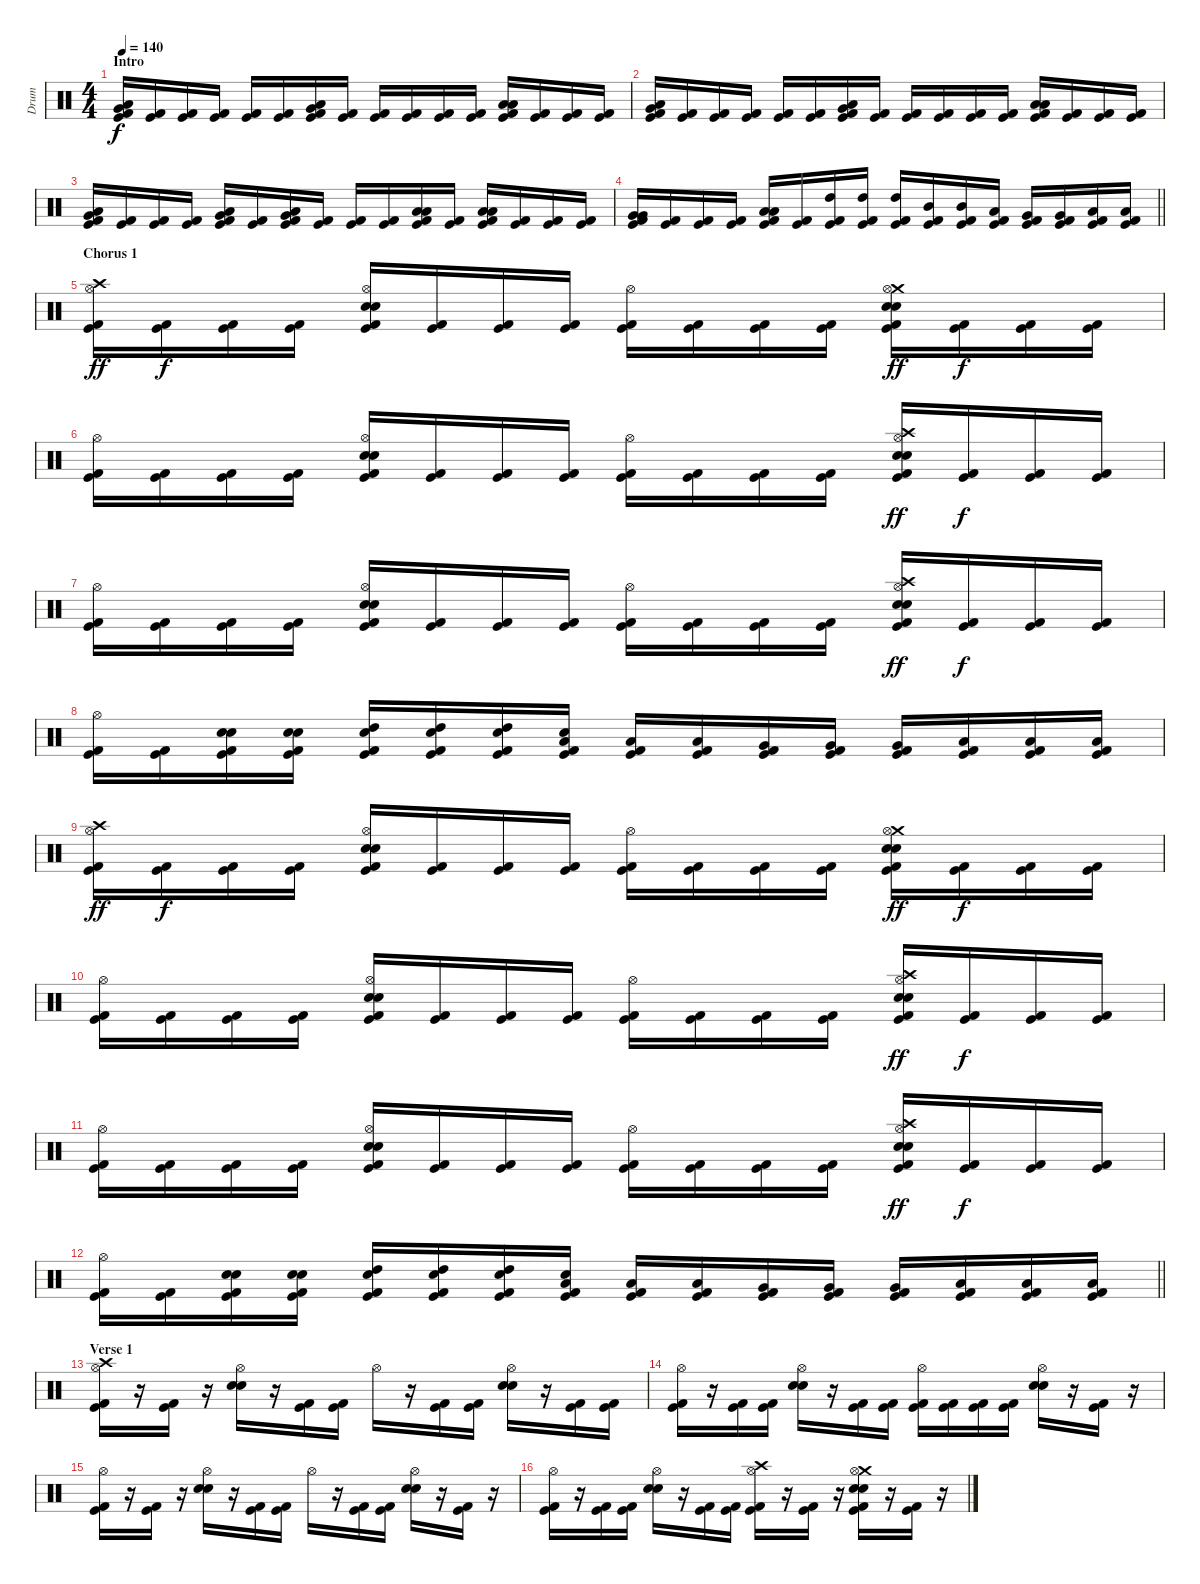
\track ("Drum" "Drum") {instrument percussion}
\staff {score}
\articulation defaults
\ts (4 4)
\section ("" "Intro")
\tempo 140
\clef neutral
\ks c
("Very Low Tom (hit)" "Low Floor Tom (hit)" "Kick (hit)" "Kick (hit) 2").16{dy f} ("Kick (hit)" "Kick (hit) 2").16 ("Kick (hit)" "Kick (hit) 2").16 ("Kick (hit)" "Kick (hit) 2").16 ("Kick (hit)" "Kick (hit) 2").16 ("Kick (hit)" "Kick (hit) 2").16 ("Very Low Tom (hit)" "Low Floor Tom (hit)" "Kick (hit)" "Kick (hit) 2").16 ("Kick (hit)" "Kick (hit) 2").16 ("Kick (hit)" "Kick (hit) 2").16 ("Kick (hit)" "Kick (hit) 2").16 ("Kick (hit)" "Kick (hit) 2").16 ("Kick (hit)" "Kick (hit) 2").16 ("Low Floor Tom (hit)" "Low Floor Tom (hit)" "Kick (hit)" "Kick (hit) 2").16 ("Kick (hit)" "Kick (hit) 2").16 ("Kick (hit)" "Kick (hit) 2").16 ("Kick (hit)" "Kick (hit) 2").16 |
("Very Low Tom (hit)" "Low Floor Tom (hit)" "Kick (hit)" "Kick (hit) 2").16 ("Kick (hit)" "Kick (hit) 2").16 ("Kick (hit)" "Kick (hit) 2").16 ("Kick (hit)" "Kick (hit) 2").16 ("Kick (hit)" "Kick (hit) 2").16 ("Kick (hit)" "Kick (hit) 2").16 ("Very Low Tom (hit)" "Low Floor Tom (hit)" "Kick (hit)" "Kick (hit) 2").16 ("Kick (hit)" "Kick (hit) 2").16 ("Kick (hit)" "Kick (hit) 2").16 ("Kick (hit)" "Kick (hit) 2").16 ("Kick (hit)" "Kick (hit) 2").16 ("Kick (hit)" "Kick (hit) 2").16 ("Low Floor Tom (hit)" "Low Floor Tom (hit)" "Kick (hit)" "Kick (hit) 2").16 ("Kick (hit)" "Kick (hit) 2").16 ("Kick (hit)" "Kick (hit) 2").16 ("Kick (hit)" "Kick (hit) 2").16 |
("Very Low Tom (hit)" "Low Floor Tom (hit)" "Kick (hit)" "Kick (hit) 2").16 ("Kick (hit)" "Kick (hit) 2").16 ("Kick (hit)" "Kick (hit) 2").16 ("Kick (hit)" "Kick (hit) 2").16 ("Very Low Tom (hit)" "Low Floor Tom (hit)" "Kick (hit)" "Kick (hit) 2").16 ("Kick (hit)" "Kick (hit) 2").16 ("Very Low Tom (hit)" "Low Floor Tom (hit)" "Kick (hit)" "Kick (hit) 2").16 ("Kick (hit)" "Kick (hit) 2").16 ("Kick (hit)" "Kick (hit) 2").16 ("Kick (hit)" "Kick (hit) 2").16 ("Low Floor Tom (hit)" "Low Floor Tom (hit)" "Kick (hit)" "Kick (hit) 2").16 ("Kick (hit)" "Kick (hit) 2").16 ("Low Floor Tom (hit)" "Low Floor Tom (hit)" "Kick (hit)" "Kick (hit) 2").16 ("Kick (hit)" "Kick (hit) 2").16 ("Kick (hit)" "Kick (hit) 2").16 ("Kick (hit)" "Kick (hit) 2").16 |
\barLineRight lightlight
("Very Low Tom (hit)" "Very Low Tom (hit)" "Kick (hit)" "Kick (hit) 2").16 ("Kick (hit)" "Kick (hit) 2").16 ("Kick (hit)" "Kick (hit) 2").16 ("Kick (hit)" "Kick (hit) 2").16 ("Low Floor Tom (hit)" "Low Floor Tom (hit)" "Kick (hit)" "Kick (hit) 2").16 ("Kick (hit)" "Kick (hit) 2").16 ("High Tom (hit)" "Kick (hit)" "Kick (hit) 2").16 ("High Tom (hit)" "Kick (hit)" "Kick (hit) 2").16 ("High Tom (hit)" "Kick (hit)" "Kick (hit) 2").16 ("Mid Tom (hit)" "Kick (hit)" "Kick (hit) 2").16 ("Mid Tom (hit)" "Kick (hit)" "Kick (hit) 2").16 ("Low Tom (hit)" "Kick (hit)" "Kick (hit) 2").16 ("Very Low Tom (hit)" "Kick (hit)" "Kick (hit) 2").16 ("Very Low Tom (hit)" "Kick (hit)" "Kick (hit) 2").16 ("Low Floor Tom (hit)" "Kick (hit)" "Kick (hit) 2").16 ("Low Floor Tom (hit)" "Kick (hit)" "Kick (hit) 2").16 |
\section ("" "Chorus 1")
("Crash high (hit)" "Hi-Hat (open)" "Kick (hit)" "Kick (hit) 2").16{dy ff} ("Kick (hit)" "Kick (hit) 2").16{dy f} ("Kick (hit)" "Kick (hit) 2").16 ("Kick (hit)" "Kick (hit) 2").16 ("Hi-Hat (open)" "Snare (hit) 2" "Electric Snare (hit)" "Kick (hit)" "Kick (hit) 2").16 ("Kick (hit)" "Kick (hit) 2").16 ("Kick (hit)" "Kick (hit) 2").16 ("Kick (hit)" "Kick (hit) 2").16 ("Hi-Hat (open)" "Kick (hit)" "Kick (hit) 2").16 ("Kick (hit)" "Kick (hit) 2").16 ("Kick (hit)" "Kick (hit) 2").16 ("Kick (hit)" "Kick (hit) 2").16 ("Crash medium (hit)" "Hi-Hat (open)" "Snare (hit) 2" "Electric Snare (hit)" "Kick (hit)" "Kick (hit) 2").16{dy ff} ("Kick (hit)" "Kick (hit) 2").16{dy f} ("Kick (hit)" "Kick (hit) 2").16 ("Kick (hit)" "Kick (hit) 2").16 |
("Hi-Hat (open)" "Kick (hit)" "Kick (hit) 2").16 ("Kick (hit)" "Kick (hit) 2").16 ("Kick (hit)" "Kick (hit) 2").16 ("Kick (hit)" "Kick (hit) 2").16 ("Hi-Hat (open)" "Snare (hit) 2" "Electric Snare (hit)" "Kick (hit)" "Kick (hit) 2").16 ("Kick (hit)" "Kick (hit) 2").16 ("Kick (hit)" "Kick (hit) 2").16 ("Kick (hit)" "Kick (hit) 2").16 ("Hi-Hat (open)" "Kick (hit)" "Kick (hit) 2").16 ("Kick (hit)" "Kick (hit) 2").16 ("Kick (hit)" "Kick (hit) 2").16 ("Kick (hit)" "Kick (hit) 2").16 ("Crash high (hit)" "Hi-Hat (open)" "Snare (hit) 2" "Electric Snare (hit)" "Kick (hit)" "Kick (hit) 2").16{dy ff} ("Kick (hit)" "Kick (hit) 2").16{dy f} ("Kick (hit)" "Kick (hit) 2").16 ("Kick (hit)" "Kick (hit) 2").16 |
("Hi-Hat (open)" "Kick (hit)" "Kick (hit) 2").16 ("Kick (hit)" "Kick (hit) 2").16 ("Kick (hit)" "Kick (hit) 2").16 ("Kick (hit)" "Kick (hit) 2").16 ("Hi-Hat (open)" "Snare (hit) 2" "Electric Snare (hit)" "Kick (hit)" "Kick (hit) 2").16 ("Kick (hit)" "Kick (hit) 2").16 ("Kick (hit)" "Kick (hit) 2").16 ("Kick (hit)" "Kick (hit) 2").16 ("Hi-Hat (open)" "Kick (hit)" "Kick (hit) 2").16 ("Kick (hit)" "Kick (hit) 2").16 ("Kick (hit)" "Kick (hit) 2").16 ("Kick (hit)" "Kick (hit) 2").16 ("Crash high (hit)" "Hi-Hat (open)" "Snare (hit) 2" "Electric Snare (hit)" "Kick (hit)" "Kick (hit) 2").16{dy ff} ("Kick (hit)" "Kick (hit) 2").16{dy f} ("Kick (hit)" "Kick (hit) 2").16 ("Kick (hit)" "Kick (hit) 2").16 |
("Hi-Hat (open)" "Kick (hit)" "Kick (hit) 2").16 ("Kick (hit)" "Kick (hit) 2").16 ("Snare (hit) 2" "Electric Snare (hit)" "Kick (hit)" "Kick (hit) 2").16 ("Snare (hit) 2" "Electric Snare (hit)" "Kick (hit)" "Kick (hit) 2").16 ("High Tom (hit)" "Electric Snare (hit)" "Kick (hit)" "Kick (hit) 2").16 ("High Tom (hit)" "Electric Snare (hit)" "Kick (hit)" "Kick (hit) 2").16 ("High Tom (hit)" "Electric Snare (hit)" "Kick (hit)" "Kick (hit) 2").16 ("Low Tom (hit)" "Electric Snare (hit)" "Kick (hit)" "Kick (hit) 2").16 ("Low Tom (hit)" "Kick (hit)" "Kick (hit) 2").16 ("Low Tom (hit)" "Kick (hit)" "Kick (hit) 2").16 ("Very Low Tom (hit)" "Kick (hit)" "Kick (hit) 2").16 ("Very Low Tom (hit)" "Kick (hit)" "Kick (hit) 2").16 ("Very Low Tom (hit)" "Kick (hit)" "Kick (hit) 2").16 ("Low Floor Tom (hit)" "Kick (hit)" "Kick (hit) 2").16 ("Low Floor Tom (hit)" "Kick (hit)" "Kick (hit) 2").16 ("Low Floor Tom (hit)" "Kick (hit)" "Kick (hit) 2").16 |
("Crash high (hit)" "Hi-Hat (open)" "Kick (hit)" "Kick (hit) 2").16{dy ff} ("Kick (hit)" "Kick (hit) 2").16{dy f} ("Kick (hit)" "Kick (hit) 2").16 ("Kick (hit)" "Kick (hit) 2").16 ("Hi-Hat (open)" "Snare (hit) 2" "Electric Snare (hit)" "Kick (hit)" "Kick (hit) 2").16 ("Kick (hit)" "Kick (hit) 2").16 ("Kick (hit)" "Kick (hit) 2").16 ("Kick (hit)" "Kick (hit) 2").16 ("Hi-Hat (open)" "Kick (hit)" "Kick (hit) 2").16 ("Kick (hit)" "Kick (hit) 2").16 ("Kick (hit)" "Kick (hit) 2").16 ("Kick (hit)" "Kick (hit) 2").16 ("Crash medium (hit)" "Hi-Hat (open)" "Snare (hit) 2" "Electric Snare (hit)" "Kick (hit)" "Kick (hit) 2").16{dy ff} ("Kick (hit)" "Kick (hit) 2").16{dy f} ("Kick (hit)" "Kick (hit) 2").16 ("Kick (hit)" "Kick (hit) 2").16 |
("Hi-Hat (open)" "Kick (hit)" "Kick (hit) 2").16 ("Kick (hit)" "Kick (hit) 2").16 ("Kick (hit)" "Kick (hit) 2").16 ("Kick (hit)" "Kick (hit) 2").16 ("Hi-Hat (open)" "Snare (hit) 2" "Electric Snare (hit)" "Kick (hit)" "Kick (hit) 2").16 ("Kick (hit)" "Kick (hit) 2").16 ("Kick (hit)" "Kick (hit) 2").16 ("Kick (hit)" "Kick (hit) 2").16 ("Hi-Hat (open)" "Kick (hit)" "Kick (hit) 2").16 ("Kick (hit)" "Kick (hit) 2").16 ("Kick (hit)" "Kick (hit) 2").16 ("Kick (hit)" "Kick (hit) 2").16 ("Crash high (hit)" "Hi-Hat (open)" "Snare (hit) 2" "Electric Snare (hit)" "Kick (hit)" "Kick (hit) 2").16{dy ff} ("Kick (hit)" "Kick (hit) 2").16{dy f} ("Kick (hit)" "Kick (hit) 2").16 ("Kick (hit)" "Kick (hit) 2").16 |
("Hi-Hat (open)" "Kick (hit)" "Kick (hit) 2").16 ("Kick (hit)" "Kick (hit) 2").16 ("Kick (hit)" "Kick (hit) 2").16 ("Kick (hit)" "Kick (hit) 2").16 ("Hi-Hat (open)" "Snare (hit) 2" "Electric Snare (hit)" "Kick (hit)" "Kick (hit) 2").16 ("Kick (hit)" "Kick (hit) 2").16 ("Kick (hit)" "Kick (hit) 2").16 ("Kick (hit)" "Kick (hit) 2").16 ("Hi-Hat (open)" "Kick (hit)" "Kick (hit) 2").16 ("Kick (hit)" "Kick (hit) 2").16 ("Kick (hit)" "Kick (hit) 2").16 ("Kick (hit)" "Kick (hit) 2").16 ("Crash high (hit)" "Hi-Hat (open)" "Snare (hit) 2" "Electric Snare (hit)" "Kick (hit)" "Kick (hit) 2").16{dy ff} ("Kick (hit)" "Kick (hit) 2").16{dy f} ("Kick (hit)" "Kick (hit) 2").16 ("Kick (hit)" "Kick (hit) 2").16 |
\barLineRight lightlight
("Hi-Hat (open)" "Kick (hit)" "Kick (hit) 2").16 ("Kick (hit)" "Kick (hit) 2").16 ("Snare (hit) 2" "Electric Snare (hit)" "Kick (hit)" "Kick (hit) 2").16 ("Snare (hit) 2" "Electric Snare (hit)" "Kick (hit)" "Kick (hit) 2").16 ("High Tom (hit)" "Electric Snare (hit)" "Kick (hit)" "Kick (hit) 2").16 ("High Tom (hit)" "Electric Snare (hit)" "Kick (hit)" "Kick (hit) 2").16 ("High Tom (hit)" "Electric Snare (hit)" "Kick (hit)" "Kick (hit) 2").16 ("Low Tom (hit)" "Electric Snare (hit)" "Kick (hit)" "Kick (hit) 2").16 ("Low Tom (hit)" "Kick (hit)" "Kick (hit) 2").16 ("Low Tom (hit)" "Kick (hit)" "Kick (hit) 2").16 ("Very Low Tom (hit)" "Kick (hit)" "Kick (hit) 2").16 ("Very Low Tom (hit)" "Kick (hit)" "Kick (hit) 2").16 ("Very Low Tom (hit)" "Kick (hit)" "Kick (hit) 2").16 ("Low Floor Tom (hit)" "Kick (hit)" "Kick (hit) 2").16 ("Low Floor Tom (hit)" "Kick (hit)" "Kick (hit) 2").16 ("Low Floor Tom (hit)" "Kick (hit)" "Kick (hit) 2").16 |
\section ("" "Verse 1")
("Crash high (hit)" "Hi-Hat (open)" "Kick (hit)" "Kick (hit) 2").16 r.16 ("Kick (hit)" "Kick (hit) 2").16 r.16 ("Hi-Hat (open)" "Snare (hit) 2" "Electric Snare (hit)").16 r.16 ("Kick (hit)" "Kick (hit) 2").16 ("Kick (hit)" "Kick (hit) 2").16 "Hi-Hat (open)".16 r.16 ("Kick (hit)" "Kick (hit) 2").16 ("Kick (hit)" "Kick (hit) 2").16 ("Hi-Hat (open)" "Snare (hit) 2" "Electric Snare (hit)").16 r.16 ("Kick (hit)" "Kick (hit) 2").16 ("Kick (hit)" "Kick (hit) 2").16 |
("Hi-Hat (open)" "Kick (hit)" "Kick (hit) 2").16 r.16 ("Kick (hit)" "Kick (hit) 2").16 ("Kick (hit)" "Kick (hit) 2").16 ("Hi-Hat (open)" "Snare (hit) 2" "Electric Snare (hit)").16 r.16 ("Kick (hit)" "Kick (hit) 2").16 ("Kick (hit)" "Kick (hit) 2").16 ("Hi-Hat (open)" "Kick (hit)" "Kick (hit) 2").16 ("Kick (hit)" "Kick (hit) 2").16 ("Kick (hit)" "Kick (hit) 2").16 ("Kick (hit)" "Kick (hit) 2").16 ("Hi-Hat (open)" "Snare (hit) 2" "Electric Snare (hit)").16 r.16 ("Kick (hit)" "Kick (hit) 2").16 r.16 |
("Hi-Hat (open)" "Kick (hit)" "Kick (hit) 2").16 r.16 ("Kick (hit)" "Kick (hit) 2").16 r.16 ("Hi-Hat (open)" "Snare (hit) 2" "Electric Snare (hit)").16 r.16 ("Kick (hit)" "Kick (hit) 2").16 ("Kick (hit)" "Kick (hit) 2").16 "Hi-Hat (open)".16 r.16 ("Kick (hit)" "Kick (hit) 2").16 ("Kick (hit)" "Kick (hit) 2").16 ("Hi-Hat (open)" "Snare (hit) 2" "Electric Snare (hit)").16 r.16 ("Kick (hit)" "Kick (hit) 2").16 r.16 |
("Hi-Hat (open)" "Kick (hit)" "Kick (hit) 2").16 r.16 ("Kick (hit)" "Kick (hit) 2").16 ("Kick (hit)" "Kick (hit) 2").16 ("Hi-Hat (open)" "Snare (hit) 2" "Electric Snare (hit)").16 r.16 ("Kick (hit)" "Kick (hit) 2").16 ("Kick (hit)" "Kick (hit) 2").16 ("Crash high (hit)" "Hi-Hat (open)" "Kick (hit)" "Kick (hit) 2").16 r.16 ("Kick (hit)" "Kick (hit) 2").16 r.16 ("Crash medium (hit)" "Hi-Hat (open)" "Snare (hit) 2" "Electric Snare (hit)" "Kick (hit)" "Kick (hit) 2").16 r.16 ("Kick (hit)" "Kick (hit) 2").16 r.16
